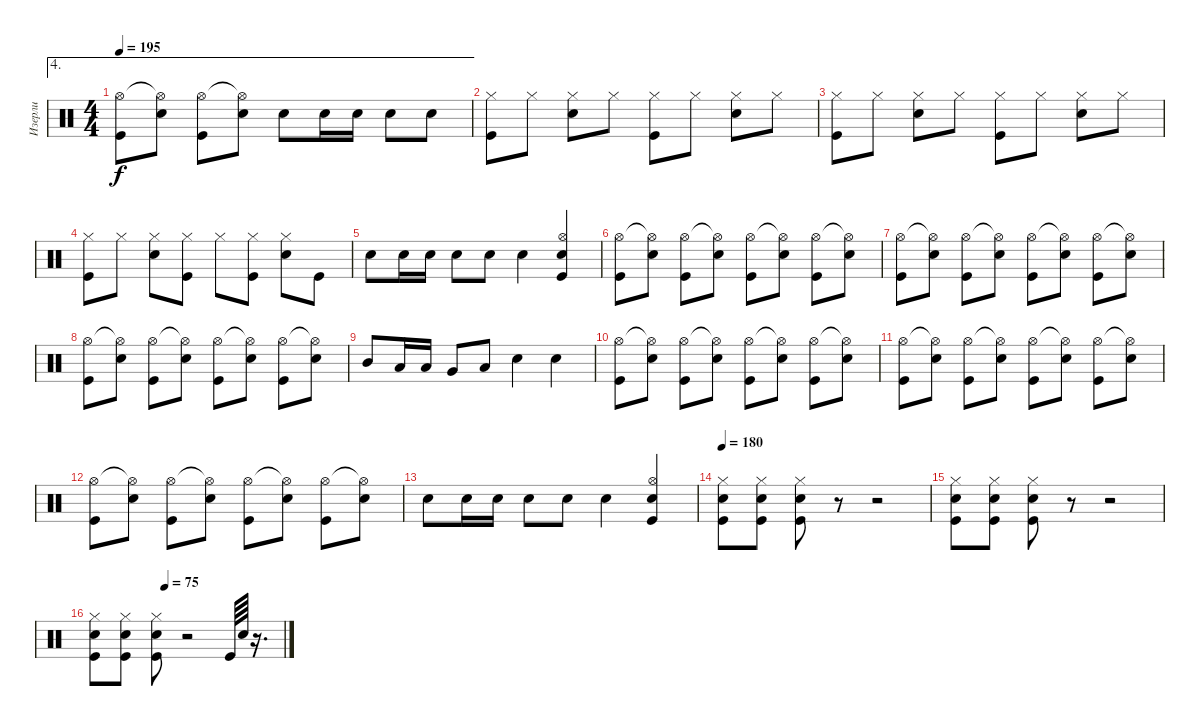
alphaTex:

\track ("Изерли" "Изерли") {instrument percussion}
\staff {score}
\articulation defaults
\ae 4
\ts (4 4)
\tempo 195
\clef neutral
\ks c
("Kick (hit)" "Hi-Hat (open)").8{dy f} ("Snare (hit) 2" "Hi-Hat (open)"{t}).8 ("Kick (hit)" "Hi-Hat (open)").8 ("Snare (hit) 2" "Hi-Hat (open)"{t}).8 "Snare (hit) 2".8 "Snare (hit) 2".16 "Snare (hit) 2".16 "Snare (hit) 2".8 "Snare (hit) 2".8 |
("Hi-Hat (closed)" "Kick (hit)").8 "Hi-Hat (closed)".8 ("Hi-Hat (closed)" "Snare (hit) 2").8 "Hi-Hat (closed)".8 ("Hi-Hat (closed)" "Kick (hit)").8 "Hi-Hat (closed)".8 ("Hi-Hat (closed)" "Snare (hit) 2").8 "Hi-Hat (closed)".8 |
("Hi-Hat (closed)" "Kick (hit)").8 "Hi-Hat (closed)".8 ("Hi-Hat (closed)" "Snare (hit) 2").8 "Hi-Hat (closed)".8 ("Hi-Hat (closed)" "Kick (hit)").8 "Hi-Hat (closed)".8 ("Hi-Hat (closed)" "Snare (hit) 2").8 "Hi-Hat (closed)".8 |
("Hi-Hat (closed)" "Kick (hit)").8 "Hi-Hat (closed)".8 ("Hi-Hat (closed)" "Snare (hit) 2").8 ("Hi-Hat (closed)" "Kick (hit)").8 "Hi-Hat (closed)".8 ("Hi-Hat (closed)" "Kick (hit)").8 ("Hi-Hat (closed)" "Snare (hit) 2").8 "Kick (hit)".8 |
"Snare (hit) 2".8 "Snare (hit) 2".16 "Snare (hit) 2".16 "Snare (hit) 2".8 "Snare (hit) 2".8 "Snare (hit) 2".4 ("Hi-Hat (open)" "Kick (hit)" "Snare (hit) 2").4{balance 6} |
("Kick (hit)" "Hi-Hat (open)").8{balance 8} ("Snare (hit) 2" "Hi-Hat (open)"{t}).8 ("Kick (hit)" "Hi-Hat (open)").8 ("Snare (hit) 2" "Hi-Hat (open)"{t}).8 ("Kick (hit)" "Hi-Hat (open)").8 ("Snare (hit) 2" "Hi-Hat (open)"{t}).8 ("Kick (hit)" "Hi-Hat (open)").8 ("Snare (hit) 2" "Hi-Hat (open)"{t}).8 |
("Kick (hit)" "Hi-Hat (open)").8 ("Snare (hit) 2" "Hi-Hat (open)"{t}).8 ("Kick (hit)" "Hi-Hat (open)").8 ("Snare (hit) 2" "Hi-Hat (open)"{t}).8 ("Kick (hit)" "Hi-Hat (open)").8 ("Snare (hit) 2" "Hi-Hat (open)"{t}).8 ("Kick (hit)" "Hi-Hat (open)").8 ("Snare (hit) 2" "Hi-Hat (open)"{t}).8 |
("Kick (hit)" "Hi-Hat (open)").8 ("Snare (hit) 2" "Hi-Hat (open)"{t}).8 ("Kick (hit)" "Hi-Hat (open)").8 ("Snare (hit) 2" "Hi-Hat (open)"{t}).8 ("Kick (hit)" "Hi-Hat (open)").8 ("Snare (hit) 2" "Hi-Hat (open)"{t}).8 ("Kick (hit)" "Hi-Hat (open)").8 ("Snare (hit) 2" "Hi-Hat (open)"{t}).8 |
"Mid Tom (hit)".8{balance 6} "Low Tom (hit)".16 "Low Tom (hit)".16 "Very Low Tom (hit)".8 "Low Floor Tom (hit)".8 "Snare (hit) 2".4 "Snare (hit) 2".4 |
("Kick (hit)" "Hi-Hat (open)").8{balance 8} ("Snare (hit) 2" "Hi-Hat (open)"{t}).8 ("Kick (hit)" "Hi-Hat (open)").8 ("Snare (hit) 2" "Hi-Hat (open)"{t}).8 ("Kick (hit)" "Hi-Hat (open)").8 ("Snare (hit) 2" "Hi-Hat (open)"{t}).8 ("Kick (hit)" "Hi-Hat (open)").8 ("Snare (hit) 2" "Hi-Hat (open)"{t}).8 |
("Kick (hit)" "Hi-Hat (open)").8 ("Snare (hit) 2" "Hi-Hat (open)"{t}).8 ("Kick (hit)" "Hi-Hat (open)").8 ("Snare (hit) 2" "Hi-Hat (open)"{t}).8 ("Kick (hit)" "Hi-Hat (open)").8 ("Snare (hit) 2" "Hi-Hat (open)"{t}).8 ("Kick (hit)" "Hi-Hat (open)").8 ("Snare (hit) 2" "Hi-Hat (open)"{t}).8 |
("Kick (hit)" "Hi-Hat (open)").8{balance 8} ("Snare (hit) 2" "Hi-Hat (open)"{t}).8 ("Kick (hit)" "Hi-Hat (open)").8 ("Snare (hit) 2" "Hi-Hat (open)"{t}).8 ("Kick (hit)" "Hi-Hat (open)").8 ("Snare (hit) 2" "Hi-Hat (open)"{t}).8 ("Kick (hit)" "Hi-Hat (open)").8 ("Snare (hit) 2" "Hi-Hat (open)"{t}).8 |
"Snare (hit) 2".8 "Snare (hit) 2".16 "Snare (hit) 2".16 "Snare (hit) 2".8 "Snare (hit) 2".8 "Snare (hit) 2".4 ("Hi-Hat (open)" "Kick (hit)" "Snare (hit) 2").4{balance 6} |
\tempo 180
("Snare (hit) 2" "Hi-Hat (closed)" "Kick (hit)").8 ("Snare (hit) 2" "Hi-Hat (closed)" "Kick (hit)").8 ("Snare (hit) 2" "Hi-Hat (closed)" "Kick (hit)").8 r.8 r.2 |
("Snare (hit) 2" "Hi-Hat (closed)" "Kick (hit)").8 ("Snare (hit) 2" "Hi-Hat (closed)" "Kick (hit)").8 ("Snare (hit) 2" "Hi-Hat (closed)" "Kick (hit)").8 r.8 r.2 |
\tempo (75 0.375)
("Snare (hit) 2" "Hi-Hat (closed)" "Kick (hit)").8 ("Snare (hit) 2" "Hi-Hat (closed)" "Kick (hit)").8 ("Snare (hit) 2" "Hi-Hat (closed)" "Kick (hit)").8 r.2 "Kick (hit)".64 "Snare (hit) 2".64 r.16{d}
